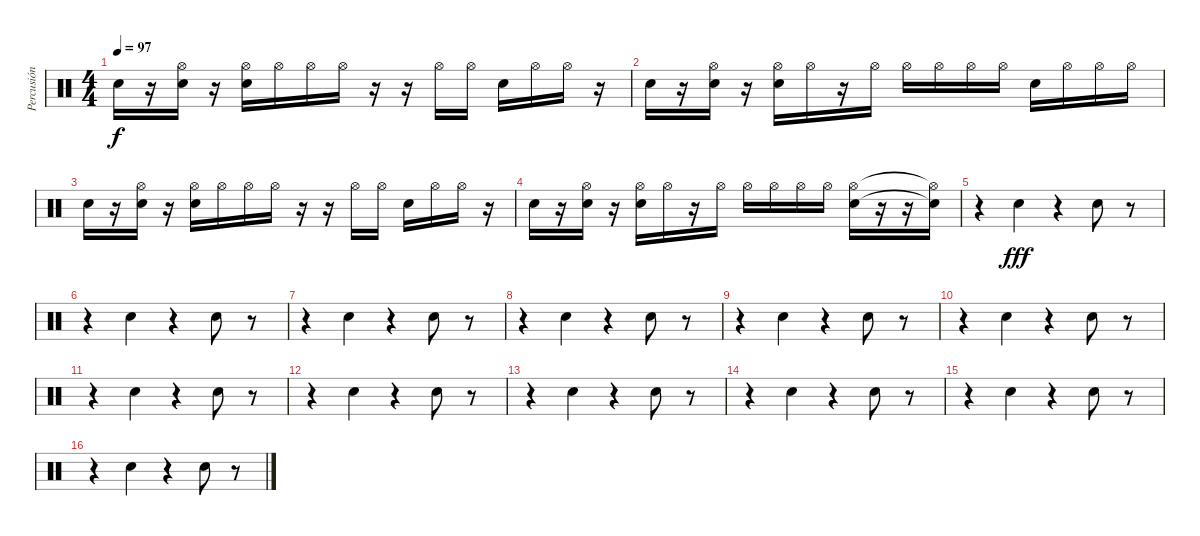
\track ("Percusión" "Percusión") {instrument percussion}
\staff {score}
\articulation defaults
\ts (4 4)
\tempo 97
\clef neutral
\ks c "Snare (hit) 2".16{dy f}
r.16 ("Hi-Hat (open)" "Snare (hit) 2").16 r.16 ("Hi-Hat (open)" "Electric Snare (hit)").16 "Hi-Hat (open)".16 "Hi-Hat (open)".16 "Hi-Hat (open)".16 r.16 r.16 "Hi-Hat (open)".16 "Hi-Hat (open)".16 "Electric Snare (hit)".16 "Hi-Hat (open)".16 "Hi-Hat (open)".16 r.16 |
"Snare (hit) 2".16 r.16 ("Hi-Hat (open)" "Snare (hit) 2").16 r.16 ("Hi-Hat (open)" "Electric Snare (hit)").16 "Hi-Hat (open)".16 r.16 "Hi-Hat (open)".16 "Hi-Hat (open)".16 "Hi-Hat (open)".16 "Hi-Hat (open)".16 "Hi-Hat (open)".16 "Electric Snare (hit)".16 "Hi-Hat (open)".16 "Hi-Hat (open)".16 "Hi-Hat (open)".16 |
"Snare (hit) 2".16 r.16 ("Hi-Hat (open)" "Snare (hit) 2").16 r.16 ("Hi-Hat (open)" "Electric Snare (hit)").16 "Hi-Hat (open)".16 "Hi-Hat (open)".16 "Hi-Hat (open)".16 r.16 r.16 "Hi-Hat (open)".16 "Hi-Hat (open)".16 "Electric Snare (hit)".16 "Hi-Hat (open)".16 "Hi-Hat (open)".16 r.16 |
"Snare (hit) 2".16 r.16 ("Hi-Hat (open)" "Snare (hit) 2").16 r.16 ("Hi-Hat (open)" "Electric Snare (hit)").16 "Hi-Hat (open)".16 r.16 "Hi-Hat (open)".16 "Hi-Hat (open)".16 "Hi-Hat (open)".16 "Hi-Hat (open)".16 "Hi-Hat (open)".16 ("Hi-Hat (open)" "Electric Snare (hit)").16 r.16 r.16 ("Hi-Hat (open)"{t} "Snare (hit)"{t}).16 |
r.4 "Snare (hit) 2".4{dy fff} r.4 "Snare (hit) 2".8 r.8 |
r.4 "Snare (hit) 2".4 r.4 "Snare (hit) 2".8 r.8 |
r.4 "Snare (hit) 2".4 r.4 "Snare (hit) 2".8 r.8 |
r.4 "Snare (hit) 2".4 r.4 "Snare (hit) 2".8 r.8 |
r.4 "Snare (hit) 2".4 r.4 "Snare (hit) 2".8 r.8 |
r.4 "Snare (hit) 2".4 r.4 "Snare (hit) 2".8 r.8 |
r.4 "Snare (hit) 2".4 r.4 "Snare (hit) 2".8 r.8 |
r.4 "Snare (hit) 2".4 r.4 "Snare (hit) 2".8 r.8 |
r.4 "Snare (hit) 2".4 r.4 "Snare (hit) 2".8 r.8 |
r.4 "Snare (hit) 2".4 r.4 "Snare (hit) 2".8 r.8 |
r.4 "Snare (hit) 2".4 r.4 "Snare (hit) 2".8 r.8 |
r.4 "Snare (hit) 2".4 r.4 "Snare (hit) 2".8 r.8
